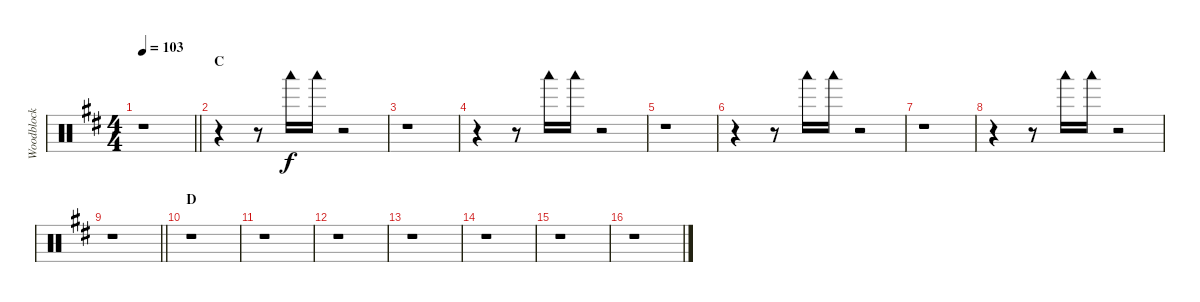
\track ("Woodblock" "Woodblock") {instrument percussion}
\staff {score}
\articulation defaults
\ts (4 4)
\tempo 103
\clef neutral
\barLineRight lightlight
\ks d
r.1{dy f} |
\section ("" "C")
r.4 r.8 "Woodblock low (hit)".16 "Woodblock low (hit)".16 r.2 |
r.1 |
r.4 r.8 "Woodblock low (hit)".16 "Woodblock low (hit)".16 r.2 |
r.1 |
r.4 r.8 "Woodblock low (hit)".16 "Woodblock low (hit)".16 r.2 |
r.1 |
r.4 r.8 "Woodblock low (hit)".16 "Woodblock low (hit)".16 r.2 |
\barLineRight lightlight
r.1 |
\section ("" "D")
r.1 |
r.1 |
r.1 |
r.1 |
r.1 |
r.1 |
r.1
